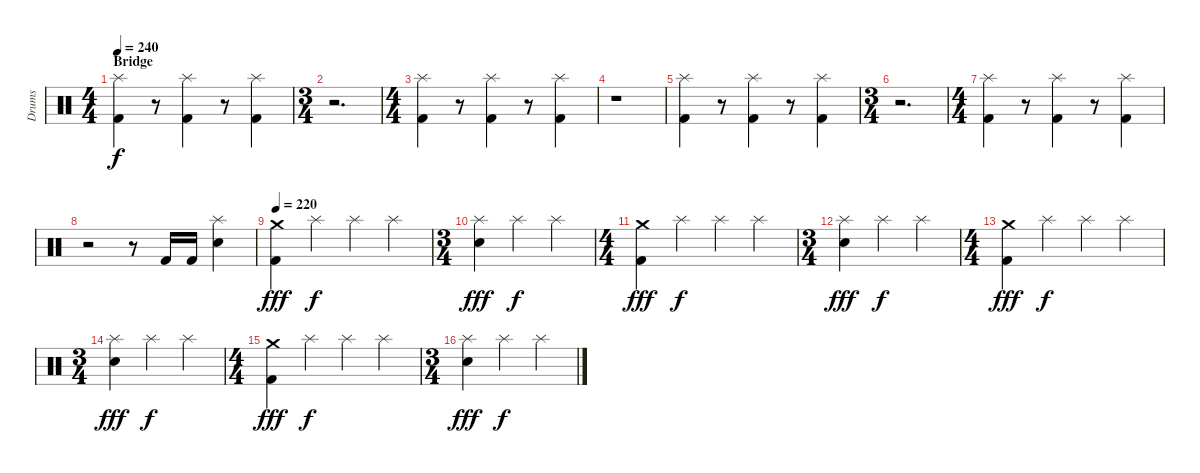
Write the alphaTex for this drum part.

\track ("Drums" "Drums") {instrument percussion}
\staff {score}
\articulation defaults
\ts (4 4)
\section ("" "Bridge")
\tempo 240
\clef neutral
\ks c
("Splash (hit)" "Kick (hit) 2").4{dy f} r.8 ("Splash (hit)" "Kick (hit) 2").4 r.8 ("Splash (hit)" "Kick (hit) 2").4 |
\ts (3 4)
r.2{d} |
\ts (4 4)
("Splash (hit)" "Kick (hit) 2").4 r.8 ("Splash (hit)" "Kick (hit) 2").4 r.8 ("Splash (hit)" "Kick (hit) 2").4 |
r.1 |
("Splash (hit)" "Kick (hit) 2").4 r.8 ("Splash (hit)" "Kick (hit) 2").4 r.8 ("Splash (hit)" "Kick (hit) 2").4 |
\ts (3 4)
r.2{d} |
\ts (4 4)
("Splash (hit)" "Kick (hit) 2").4 r.8 ("Splash (hit)" "Kick (hit) 2").4 r.8 ("Splash (hit)" "Kick (hit) 2").4 |
r.2 r.8 "Kick (hit) 2".16 "Kick (hit) 2".16 ("Splash (hit)" "Snare (hit) 2").4 |
\tempo 220
("Crash medium (hit)" "Kick (hit) 2").4{dy fff} "Splash (hit)".4{dy f} "Splash (hit)".4 "Splash (hit)".4 |
\ts (3 4)
("Splash (hit)" "Snare (hit) 2").4{dy fff} "Splash (hit)".4{dy f} "Splash (hit)".4 |
\ts (4 4)
("Crash medium (hit)" "Kick (hit) 2").4{dy fff} "Splash (hit)".4{dy f} "Splash (hit)".4 "Splash (hit)".4 |
\ts (3 4)
("Splash (hit)" "Snare (hit) 2").4{dy fff} "Splash (hit)".4{dy f} "Splash (hit)".4 |
\ts (4 4)
("Crash medium (hit)" "Kick (hit) 2").4{dy fff} "Splash (hit)".4{dy f} "Splash (hit)".4 "Splash (hit)".4 |
\ts (3 4)
("Splash (hit)" "Snare (hit) 2").4{dy fff} "Splash (hit)".4{dy f} "Splash (hit)".4 |
\ts (4 4)
("Crash medium (hit)" "Kick (hit) 2").4{dy fff} "Splash (hit)".4{dy f} "Splash (hit)".4 "Splash (hit)".4 |
\ts (3 4)
("Splash (hit)" "Snare (hit) 2").4{dy fff} "Splash (hit)".4{dy f} "Splash (hit)".4
